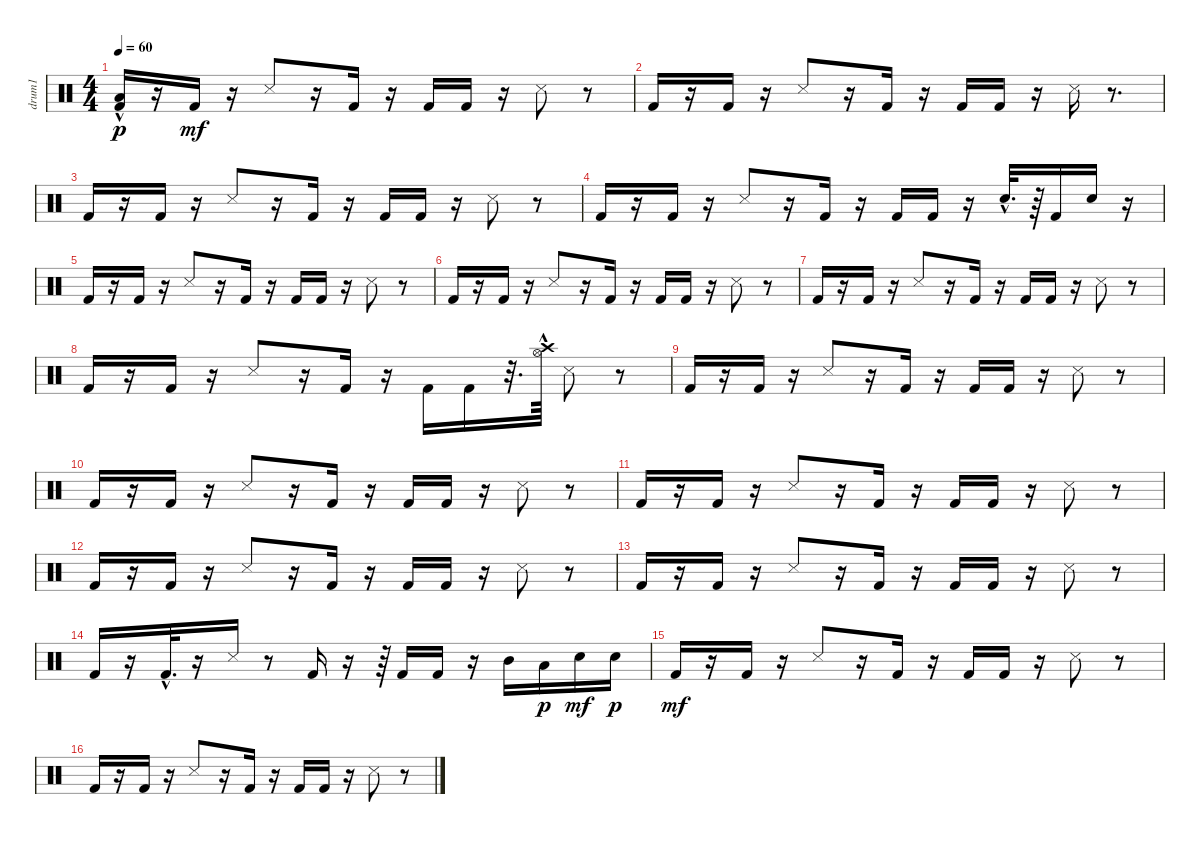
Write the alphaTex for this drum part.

\track ("drum1" "drum1") {instrument percussion}
\staff {score}
\articulation defaults
\ts (4 4)
\tempo 60
\clef neutral
\ks c
("Kick (hit) 2" "Low Floor Tom (hit)"{hac}).16{dy p} r.16 "Kick (hit) 2".16{dy mf} r.16 "Snare (side stick) 3".8 r.16 "Kick (hit) 2".16 r.16 "Kick (hit) 2".16 "Kick (hit) 2".16 r.16 "Snare (side stick) 3".8 r.8 |
"Kick (hit) 2".16 r.16 "Kick (hit) 2".16 r.16 "Snare (side stick) 3".8 r.16 "Kick (hit) 2".16 r.16 "Kick (hit) 2".16 "Kick (hit) 2".16 r.16 "Snare (side stick) 3".16 r.8{d} |
"Kick (hit) 2".16 r.16 "Kick (hit) 2".16 r.16 "Snare (side stick) 3".8 r.16 "Kick (hit) 2".16 r.16 "Kick (hit) 2".16 "Kick (hit) 2".16 r.16 "Snare (side stick) 3".8 r.8 |
"Kick (hit) 2".16 r.16 "Kick (hit) 2".16 r.16 "Snare (side stick) 3".8 r.16 "Kick (hit) 2".16 r.16 "Kick (hit) 2".16 "Kick (hit) 2".16 r.16 "Electric Snare (hit)"{hac}.32{d} r.64 "Kick (hit) 2".16 "Snare (hit) 2".16 r.16 |
"Kick (hit) 2".16 r.16 "Kick (hit) 2".16 r.16 "Snare (side stick) 3".8 r.16 "Kick (hit) 2".16 r.16 "Kick (hit) 2".16 "Kick (hit) 2".16 r.16 "Snare (side stick) 3".8 r.8 |
"Kick (hit) 2".16 r.16 "Kick (hit) 2".16 r.16 "Snare (side stick) 3".8 r.16 "Kick (hit) 2".16 r.16 "Kick (hit) 2".16 "Kick (hit) 2".16 r.16 "Snare (side stick) 3".8 r.8 |
"Kick (hit) 2".16 r.16 "Kick (hit) 2".16 r.16 "Snare (side stick) 3".8 r.16 "Kick (hit) 2".16 r.16 "Kick (hit) 2".16 "Kick (hit) 2".16 r.16 "Snare (side stick) 3".8 r.8 |
"Kick (hit) 2".16 r.16 "Kick (hit) 2".16 r.16 "Snare (side stick) 3".8 r.16 "Kick (hit) 2".16 r.16 "Kick (hit) 2".16 "Kick (hit) 2".16 r.32{d} ("Hi-Hat (open)"{hac} "Crash high (hit)"{hac}).64 "Snare (side stick) 3".8 r.8 |
"Kick (hit) 2".16 r.16 "Kick (hit) 2".16 r.16 "Snare (side stick) 3".8 r.16 "Kick (hit) 2".16 r.16 "Kick (hit) 2".16 "Kick (hit) 2".16 r.16 "Snare (side stick) 3".8 r.8 |
"Kick (hit) 2".16 r.16 "Kick (hit) 2".16 r.16 "Snare (side stick) 3".8 r.16 "Kick (hit) 2".16 r.16 "Kick (hit) 2".16 "Kick (hit) 2".16 r.16 "Snare (side stick) 3".8 r.8 |
"Kick (hit) 2".16 r.16 "Kick (hit) 2".16 r.16 "Snare (side stick) 3".8 r.16 "Kick (hit) 2".16 r.16 "Kick (hit) 2".16 "Kick (hit) 2".16 r.16 "Snare (side stick) 3".8 r.8 |
"Kick (hit) 2".16 r.16 "Kick (hit) 2".16 r.16 "Snare (side stick) 3".8 r.16 "Kick (hit) 2".16 r.16 "Kick (hit) 2".16 "Kick (hit) 2".16 r.16 "Snare (side stick) 3".8 r.8 |
"Kick (hit) 2".16 r.16 "Kick (hit) 2".16 r.16 "Snare (side stick) 3".8 r.16 "Kick (hit) 2".16 r.16 "Kick (hit) 2".16 "Kick (hit) 2".16 r.16 "Snare (side stick) 3".8 r.8 |
"Kick (hit) 2".16 r.16 "Kick (hit) 2"{hac}.32{d} r.16 "Snare (side stick) 3".16 r.8 "Kick (hit) 2".16 r.16 r.64 "Kick (hit) 2".16 "Kick (hit) 2".16 r.16 "Mid Tom (hit)".16 "Low Tom (hit)".16{dy p} "Snare (hit) 2".16{dy mf} "Snare (hit) 2".16{dy p} |
"Kick (hit) 2".16{dy mf} r.16 "Kick (hit) 2".16 r.16 "Snare (side stick) 3".8 r.16 "Kick (hit) 2".16 r.16 "Kick (hit) 2".16 "Kick (hit) 2".16 r.16 "Snare (side stick) 3".8 r.8 |
"Kick (hit) 2".16 r.16 "Kick (hit) 2".16 r.16 "Snare (side stick) 3".8 r.16 "Kick (hit) 2".16 r.16 "Kick (hit) 2".16 "Kick (hit) 2".16 r.16 "Snare (side stick) 3".8 r.8
